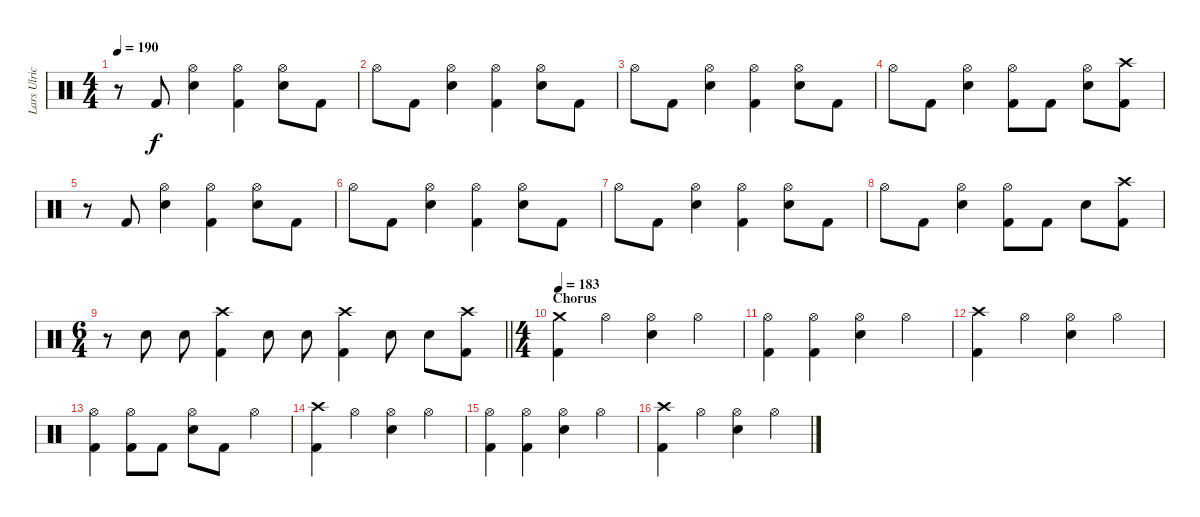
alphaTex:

\track ("Lars Ulrich" "Lars Ulric") {instrument percussion}
\staff {score}
\articulation defaults
\ts (4 4)
\tempo 190
\clef neutral
\ks c
r.8{dy f} "Kick (hit) 2".8 ("Hi-Hat (open)" "Snare (hit) 2").4 ("Hi-Hat (open)" "Kick (hit) 2").4 ("Hi-Hat (open)" "Snare (hit) 2").8 "Kick (hit) 2".8 |
"Hi-Hat (open)".8 "Kick (hit) 2".8 ("Hi-Hat (open)" "Snare (hit) 2").4 ("Hi-Hat (open)" "Kick (hit) 2").4 ("Hi-Hat (open)" "Snare (hit) 2").8 "Kick (hit) 2".8 |
"Hi-Hat (open)".8 "Kick (hit) 2".8 ("Hi-Hat (open)" "Snare (hit) 2").4 ("Hi-Hat (open)" "Kick (hit) 2").4 ("Hi-Hat (open)" "Snare (hit) 2").8 "Kick (hit) 2".8 |
"Hi-Hat (open)".8 "Kick (hit) 2".8 ("Hi-Hat (open)" "Snare (hit) 2").4 ("Hi-Hat (open)" "Kick (hit) 2").8 "Kick (hit) 2".8 ("Hi-Hat (open)" "Snare (hit) 2").8 ("Crash high (hit)" "Kick (hit) 2").8 |
r.8 "Kick (hit) 2".8 ("Hi-Hat (open)" "Snare (hit) 2").4 ("Hi-Hat (open)" "Kick (hit) 2").4 ("Hi-Hat (open)" "Snare (hit) 2").8 "Kick (hit) 2".8 |
"Hi-Hat (open)".8 "Kick (hit) 2".8 ("Hi-Hat (open)" "Snare (hit) 2").4 ("Hi-Hat (open)" "Kick (hit) 2").4 ("Hi-Hat (open)" "Snare (hit) 2").8 "Kick (hit) 2".8 |
"Hi-Hat (open)".8 "Kick (hit) 2".8 ("Hi-Hat (open)" "Snare (hit) 2").4 ("Hi-Hat (open)" "Kick (hit) 2").4 ("Hi-Hat (open)" "Snare (hit) 2").8 "Kick (hit) 2".8 |
"Hi-Hat (open)".8 "Kick (hit) 2".8 ("Hi-Hat (open)" "Snare (hit) 2").4 ("Hi-Hat (open)" "Kick (hit) 2").8 "Kick (hit) 2".8 "Snare (hit) 2".8 ("Crash high (hit)" "Kick (hit) 2").8 |
\ts (6 4)
\barLineRight lightlight
r.8 "Snare (hit) 2".8 "Snare (hit) 2".8 ("Crash high (hit)" "Kick (hit) 2").4 "Snare (hit) 2".8 "Snare (hit) 2".8 ("Crash high (hit)" "Kick (hit) 2").4 "Snare (hit) 2".8 "Snare (hit) 2".8 ("Crash high (hit)" "Kick (hit) 2").8 |
\ts (4 4)
\section ("" "Chorus")
\tempo 183
("Crash medium (hit)" "Kick (hit) 2").4 "Hi-Hat (open)".4 ("Hi-Hat (open)" "Snare (hit) 2").4 "Hi-Hat (open)".4 |
("Hi-Hat (open)" "Kick (hit) 2").4 ("Hi-Hat (open)" "Kick (hit) 2").4 ("Hi-Hat (open)" "Snare (hit) 2").4 "Hi-Hat (open)".4 |
("Crash high (hit)" "Kick (hit) 2").4 "Hi-Hat (open)".4 ("Hi-Hat (open)" "Snare (hit) 2").4 "Hi-Hat (open)".4 |
("Hi-Hat (open)" "Kick (hit) 2").4 ("Hi-Hat (open)" "Kick (hit) 2").8 "Kick (hit) 2".8 ("Hi-Hat (open)" "Snare (hit) 2").8 "Kick (hit) 2".8 "Hi-Hat (open)".4 |
("Crash high (hit)" "Kick (hit) 2").4 "Hi-Hat (open)".4 ("Hi-Hat (open)" "Snare (hit) 2").4 "Hi-Hat (open)".4 |
("Hi-Hat (open)" "Kick (hit) 2").4 ("Hi-Hat (open)" "Kick (hit) 2").4 ("Hi-Hat (open)" "Snare (hit) 2").4 "Hi-Hat (open)".4 |
("Crash high (hit)" "Kick (hit) 2").4 "Hi-Hat (open)".4 ("Hi-Hat (open)" "Snare (hit) 2").4 "Hi-Hat (open)".4
